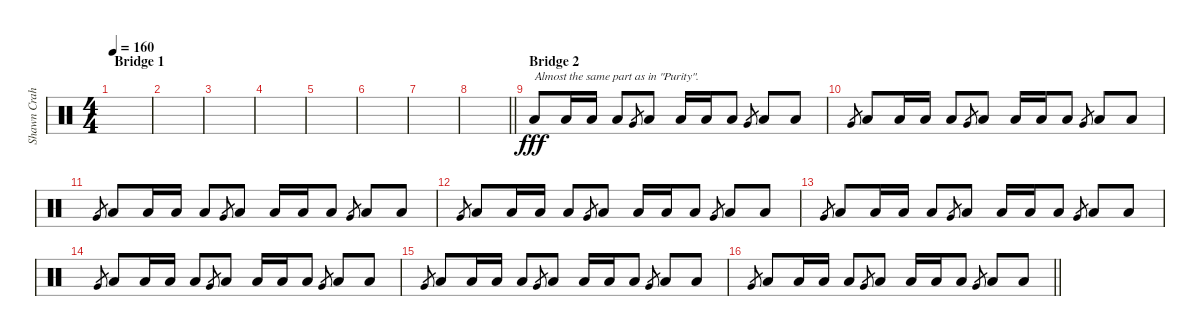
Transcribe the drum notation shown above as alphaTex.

\track ("Shawn Crahan" "Shawn Crah") {instrument percussion}
\staff {score}
\articulation defaults
\ts (4 4)
\section ("" "Bridge 1")
\tempo 160
\clef neutral
\ks c
|
|
|
|
|
|
|
\barLineRight lightlight
|
\section ("" "Bridge 2")
"Low Floor Tom (hit)".8{txt "Almost the same part as in \"Purity\"." dy fff} "Low Floor Tom (hit)".16 "Low Floor Tom (hit)".16 "Low Floor Tom (hit)".8 "Very Low Tom (hit)".8{gr} "Low Floor Tom (hit)".8 "Low Floor Tom (hit)".16 "Low Floor Tom (hit)".16 "Low Floor Tom (hit)".8 "Very Low Tom (hit)".8{gr} "Low Floor Tom (hit)".8 "Low Floor Tom (hit)".8 |
"Very Low Tom (hit)".8{gr} "Low Floor Tom (hit)".8 "Low Floor Tom (hit)".16 "Low Floor Tom (hit)".16 "Low Floor Tom (hit)".8 "Very Low Tom (hit)".8{gr} "Low Floor Tom (hit)".8 "Low Floor Tom (hit)".16 "Low Floor Tom (hit)".16 "Low Floor Tom (hit)".8 "Very Low Tom (hit)".8{gr} "Low Floor Tom (hit)".8 "Low Floor Tom (hit)".8 |
"Very Low Tom (hit)".8{gr} "Low Floor Tom (hit)".8 "Low Floor Tom (hit)".16 "Low Floor Tom (hit)".16 "Low Floor Tom (hit)".8 "Very Low Tom (hit)".8{gr} "Low Floor Tom (hit)".8 "Low Floor Tom (hit)".16 "Low Floor Tom (hit)".16 "Low Floor Tom (hit)".8 "Very Low Tom (hit)".8{gr} "Low Floor Tom (hit)".8 "Low Floor Tom (hit)".8 |
"Very Low Tom (hit)".8{gr} "Low Floor Tom (hit)".8 "Low Floor Tom (hit)".16 "Low Floor Tom (hit)".16 "Low Floor Tom (hit)".8 "Very Low Tom (hit)".8{gr} "Low Floor Tom (hit)".8 "Low Floor Tom (hit)".16 "Low Floor Tom (hit)".16 "Low Floor Tom (hit)".8 "Very Low Tom (hit)".8{gr} "Low Floor Tom (hit)".8 "Low Floor Tom (hit)".8 |
"Very Low Tom (hit)".8{gr} "Low Floor Tom (hit)".8 "Low Floor Tom (hit)".16 "Low Floor Tom (hit)".16 "Low Floor Tom (hit)".8 "Very Low Tom (hit)".8{gr} "Low Floor Tom (hit)".8 "Low Floor Tom (hit)".16 "Low Floor Tom (hit)".16 "Low Floor Tom (hit)".8 "Very Low Tom (hit)".8{gr} "Low Floor Tom (hit)".8 "Low Floor Tom (hit)".8 |
"Very Low Tom (hit)".8{gr} "Low Floor Tom (hit)".8 "Low Floor Tom (hit)".16 "Low Floor Tom (hit)".16 "Low Floor Tom (hit)".8 "Very Low Tom (hit)".8{gr} "Low Floor Tom (hit)".8 "Low Floor Tom (hit)".16 "Low Floor Tom (hit)".16 "Low Floor Tom (hit)".8 "Very Low Tom (hit)".8{gr} "Low Floor Tom (hit)".8 "Low Floor Tom (hit)".8 |
"Very Low Tom (hit)".8{gr} "Low Floor Tom (hit)".8 "Low Floor Tom (hit)".16 "Low Floor Tom (hit)".16 "Low Floor Tom (hit)".8 "Very Low Tom (hit)".8{gr} "Low Floor Tom (hit)".8 "Low Floor Tom (hit)".16 "Low Floor Tom (hit)".16 "Low Floor Tom (hit)".8 "Very Low Tom (hit)".8{gr} "Low Floor Tom (hit)".8 "Low Floor Tom (hit)".8 |
\barLineRight lightlight "Very Low Tom (hit)".8{gr} "Low Floor Tom (hit)".8 "Low Floor Tom (hit)".16 "Low Floor Tom (hit)".16 "Low Floor Tom (hit)".8 "Very Low Tom (hit)".8{gr} "Low Floor Tom (hit)".8 "Low Floor Tom (hit)".16 "Low Floor Tom (hit)".16 "Low Floor Tom (hit)".8 "Very Low Tom (hit)".8{gr} "Low Floor Tom (hit)".8 "Low Floor Tom (hit)".8
